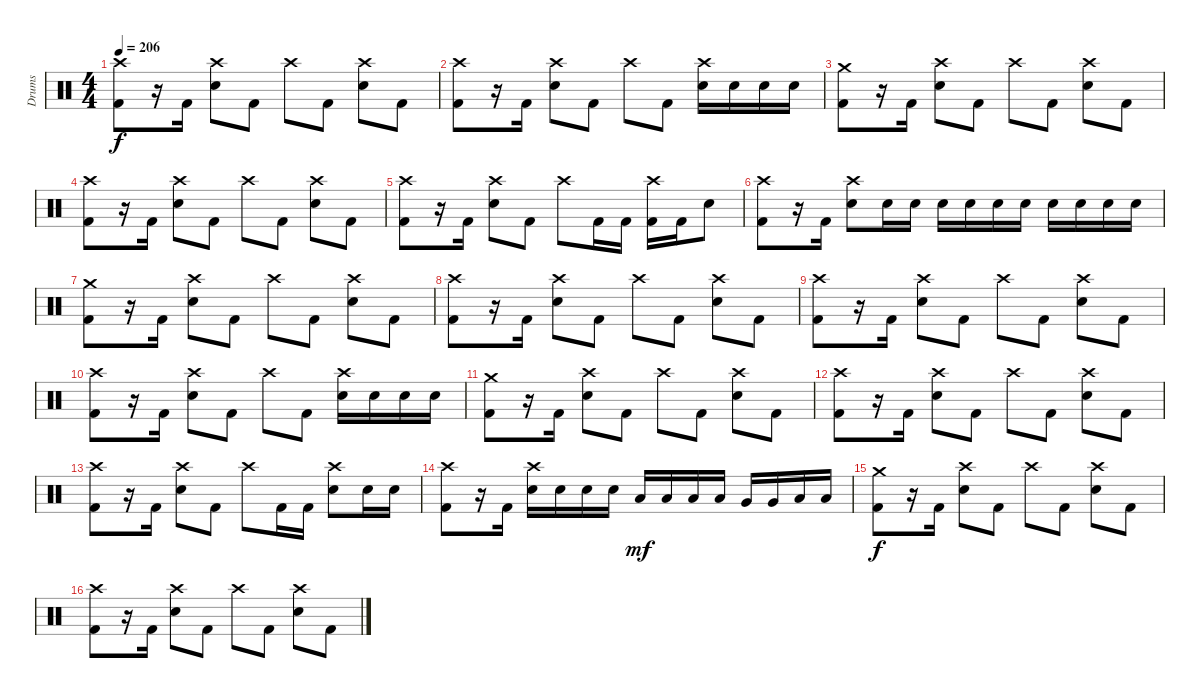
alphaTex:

\track ("Drums" "Drums") {instrument percussion}
\staff {score}
\articulation defaults
\ts (4 4)
\tempo 206
\clef neutral
\ks c
("Crash high (hit)" "Kick (hit) 2").8{dy f} r.16 "Kick (hit) 2".16 ("Crash high (hit)" "Snare (hit) 2").8 "Kick (hit) 2".8 "Crash high (hit)".8 "Kick (hit) 2".8 ("Crash high (hit)" "Snare (hit) 2").8 "Kick (hit) 2".8 |
("Crash high (hit)" "Kick (hit) 2").8 r.16 "Kick (hit) 2".16 ("Crash high (hit)" "Snare (hit) 2").8 "Kick (hit) 2".8 "Crash high (hit)".8 "Kick (hit) 2".8 ("Crash high (hit)" "Snare (hit) 2").16 "Snare (hit) 2".16 "Snare (hit) 2".16 "Snare (hit) 2".16 |
("Crash medium (hit)" "Kick (hit) 2").8 r.16 "Kick (hit) 2".16 ("Crash high (hit)" "Snare (hit) 2").8 "Kick (hit) 2".8 "Crash high (hit)".8 "Kick (hit) 2".8 ("Crash high (hit)" "Snare (hit) 2").8 "Kick (hit) 2".8 |
("Crash high (hit)" "Kick (hit) 2").8 r.16 "Kick (hit) 2".16 ("Crash high (hit)" "Snare (hit) 2").8 "Kick (hit) 2".8 "Crash high (hit)".8 "Kick (hit) 2".8 ("Crash high (hit)" "Snare (hit) 2").8 "Kick (hit) 2".8 |
("Crash high (hit)" "Kick (hit) 2").8 r.16 "Kick (hit) 2".16 ("Crash high (hit)" "Snare (hit) 2").8 "Kick (hit) 2".8 "Crash high (hit)".8 "Kick (hit) 2".16 "Kick (hit) 2".16 ("Crash high (hit)" "Kick (hit) 2").16 "Kick (hit) 2".16 "Snare (hit) 2".8 |
("Crash high (hit)" "Kick (hit) 2").8 r.16 "Kick (hit) 2".16 ("Crash high (hit)" "Snare (hit) 2").8 "Snare (hit) 2".16 "Snare (hit) 2".16 "Snare (hit) 2".16 "Snare (hit) 2".16 "Snare (hit) 2".16 "Snare (hit) 2".16 "Snare (hit) 2".16 "Snare (hit) 2".16 "Snare (hit) 2".16 "Snare (hit) 2".16 |
("Crash medium (hit)" "Kick (hit) 2").8 r.16 "Kick (hit) 2".16 ("Crash high (hit)" "Snare (hit) 2").8 "Kick (hit) 2".8 "Crash high (hit)".8 "Kick (hit) 2".8 ("Crash high (hit)" "Snare (hit) 2").8 "Kick (hit) 2".8 |
("Crash high (hit)" "Kick (hit) 2").8 r.16 "Kick (hit) 2".16 ("Crash high (hit)" "Snare (hit) 2").8 "Kick (hit) 2".8 "Crash high (hit)".8 "Kick (hit) 2".8 ("Crash high (hit)" "Snare (hit) 2").8 "Kick (hit) 2".8 |
("Crash high (hit)" "Kick (hit) 2").8 r.16 "Kick (hit) 2".16 ("Crash high (hit)" "Snare (hit) 2").8 "Kick (hit) 2".8 "Crash high (hit)".8 "Kick (hit) 2".8 ("Crash high (hit)" "Snare (hit) 2").8 "Kick (hit) 2".8 |
("Crash high (hit)" "Kick (hit) 2").8 r.16 "Kick (hit) 2".16 ("Crash high (hit)" "Snare (hit) 2").8 "Kick (hit) 2".8 "Crash high (hit)".8 "Kick (hit) 2".8 ("Crash high (hit)" "Snare (hit) 2").16 "Snare (hit) 2".16 "Snare (hit) 2".16 "Snare (hit) 2".16 |
("Crash medium (hit)" "Kick (hit) 2").8 r.16 "Kick (hit) 2".16 ("Crash high (hit)" "Snare (hit) 2").8 "Kick (hit) 2".8 "Crash high (hit)".8 "Kick (hit) 2".8 ("Crash high (hit)" "Snare (hit) 2").8 "Kick (hit) 2".8 |
("Crash high (hit)" "Kick (hit) 2").8 r.16 "Kick (hit) 2".16 ("Crash high (hit)" "Snare (hit) 2").8 "Kick (hit) 2".8 "Crash high (hit)".8 "Kick (hit) 2".8 ("Crash high (hit)" "Snare (hit) 2").8 "Kick (hit) 2".8 |
("Crash high (hit)" "Kick (hit) 2").8 r.16 "Kick (hit) 2".16 ("Crash high (hit)" "Snare (hit) 2").8 "Kick (hit) 2".8 "Crash high (hit)".8 "Kick (hit) 2".16 "Kick (hit) 2".16 ("Crash high (hit)" "Snare (hit) 2").8 "Snare (hit) 2".16 "Snare (hit) 2".16 |
("Crash high (hit)" "Kick (hit) 2").8 r.16 "Kick (hit) 2".16 ("Crash high (hit)" "Snare (hit) 2").16 "Snare (hit) 2".16 "Snare (hit) 2".16 "Snare (hit) 2".16 "Low Tom (hit)".16{dy mf} "Low Tom (hit)".16 "Low Tom (hit)".16 "Low Tom (hit)".16 "Very Low Tom (hit)".16 "Very Low Tom (hit)".16 "Low Floor Tom (hit)".16 "Low Floor Tom (hit)".16 |
("Crash medium (hit)" "Kick (hit) 2").8{dy f} r.16 "Kick (hit) 2".16 ("Crash high (hit)" "Snare (hit) 2").8 "Kick (hit) 2".8 "Crash high (hit)".8 "Kick (hit) 2".8 ("Crash high (hit)" "Snare (hit) 2").8 "Kick (hit) 2".8 |
("Crash high (hit)" "Kick (hit) 2").8 r.16 "Kick (hit) 2".16 ("Crash high (hit)" "Snare (hit) 2").8 "Kick (hit) 2".8 "Crash high (hit)".8 "Kick (hit) 2".8 ("Crash high (hit)" "Snare (hit) 2").8 "Kick (hit) 2".8
